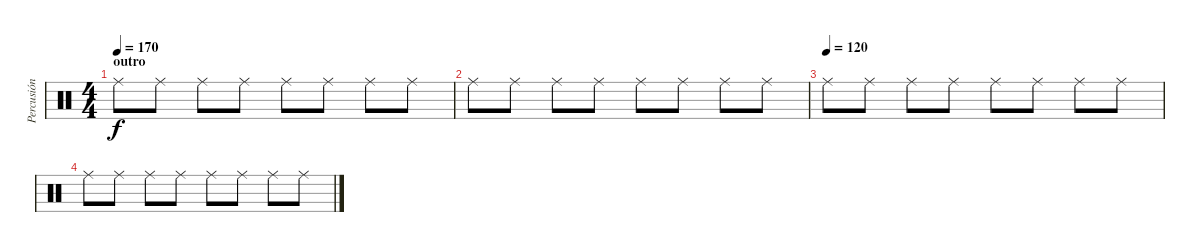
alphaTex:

\track ("Percusión" "Percusión") {instrument percussion}
\staff {score}
\articulation defaults
\ts (4 4)
\section ("" "outro")
\tempo 170
\clef neutral
\ks c "Ride (middle)".8{dy f} "Ride (middle)".8 "Ride (middle)".8 "Ride (middle)".8 "Ride (middle)".8 "Ride (middle)".8 "Ride (middle)".8 "Ride (middle)".8
|
"Ride (middle)".8 "Ride (middle)".8 "Ride (middle)".8 "Ride (middle)".8 "Ride (middle)".8 "Ride (middle)".8 "Ride (middle)".8 "Ride (middle)".8 |
\tempo (120)
"Ride (middle)".8 "Ride (middle)".8 "Ride (middle)".8 "Ride (middle)".8 "Ride (middle)".8 "Ride (middle)".8 "Ride (middle)".8 "Ride (middle)".8 |
"Ride (middle)".8 "Ride (middle)".8 "Ride (middle)".8 "Ride (middle)".8 "Ride (middle)".8 "Ride (middle)".8 "Ride (middle)".8 "Ride (middle)".8
